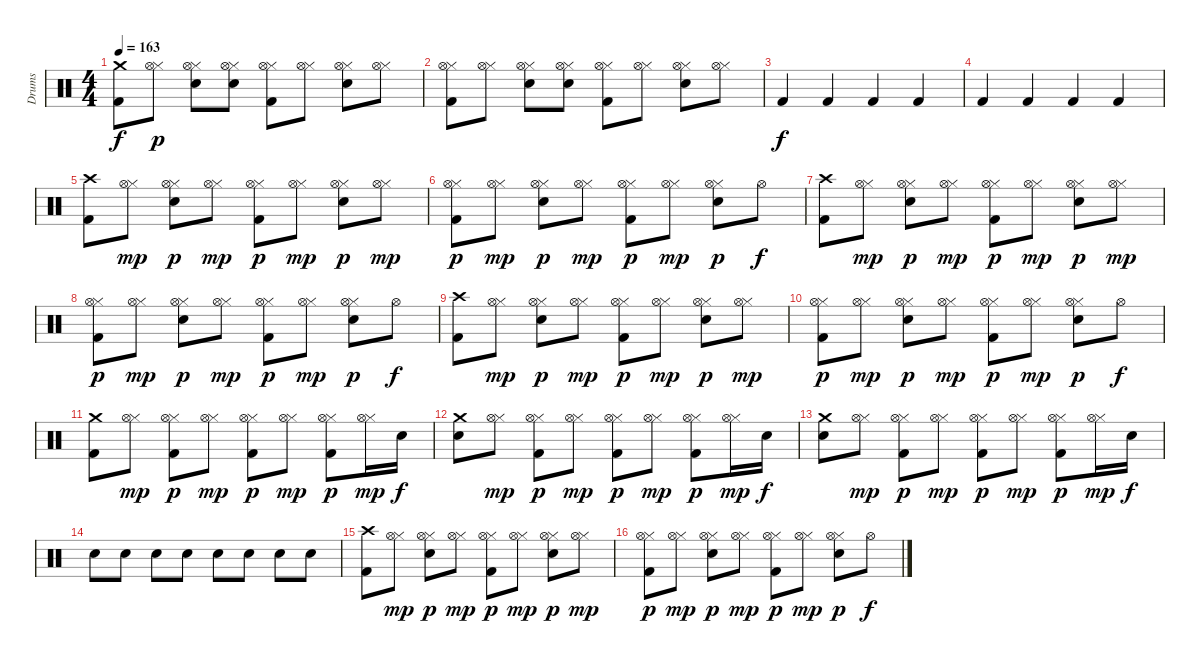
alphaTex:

\track ("Drums" "Drums") {instrument percussion}
\staff {score}
\articulation defaults
\ts (4 4)
\tempo 163
\clef neutral
\ks c
("Kick (hit) 2" "Crash medium (hit)").8{dy f} ("Hi-Hat (closed)" "Hi-Hat (open)").8{dy p} ("Electric Snare (hit)" "Hi-Hat (closed)" "Hi-Hat (open)").8 ("Electric Snare (hit)" "Hi-Hat (closed)" "Hi-Hat (open)").8 ("Kick (hit) 2" "Hi-Hat (closed)" "Hi-Hat (open)").8 ("Hi-Hat (closed)" "Hi-Hat (open)").8 ("Electric Snare (hit)" "Hi-Hat (closed)" "Hi-Hat (open)").8 ("Hi-Hat (closed)" "Hi-Hat (open)").8 |
("Kick (hit) 2" "Hi-Hat (closed)" "Hi-Hat (open)").8 ("Hi-Hat (closed)" "Hi-Hat (open)").8 ("Electric Snare (hit)" "Hi-Hat (closed)" "Hi-Hat (open)").8 ("Electric Snare (hit)" "Hi-Hat (closed)" "Hi-Hat (open)").8 ("Kick (hit) 2" "Hi-Hat (closed)" "Hi-Hat (open)").8 ("Hi-Hat (closed)" "Hi-Hat (open)").8 ("Electric Snare (hit)" "Hi-Hat (closed)" "Hi-Hat (open)").8 ("Hi-Hat (closed)" "Hi-Hat (open)").8 |
"Kick (hit) 2".4{dy f} "Kick (hit) 2".4 "Kick (hit) 2".4 "Kick (hit) 2".4 |
"Kick (hit) 2".4 "Kick (hit) 2".4 "Kick (hit) 2".4 "Kick (hit) 2".4 |
("Kick (hit) 2" "Crash high (hit)").8 ("Hi-Hat (closed)" "Hi-Hat (open)").8{dy mp} ("Electric Snare (hit)" "Hi-Hat (closed)" "Hi-Hat (open)").8{dy p} ("Hi-Hat (closed)" "Hi-Hat (open)").8{dy mp} ("Kick (hit) 2" "Hi-Hat (closed)" "Hi-Hat (open)").8{dy p} ("Hi-Hat (closed)" "Hi-Hat (open)").8{dy mp} ("Electric Snare (hit)" "Hi-Hat (closed)" "Hi-Hat (open)").8{dy p} ("Hi-Hat (closed)" "Hi-Hat (open)").8{dy mp} |
("Kick (hit) 2" "Hi-Hat (closed)" "Hi-Hat (open)").8{dy p} ("Hi-Hat (closed)" "Hi-Hat (open)").8{dy mp} ("Electric Snare (hit)" "Hi-Hat (closed)" "Hi-Hat (open)").8{dy p} ("Hi-Hat (closed)" "Hi-Hat (open)").8{dy mp} ("Kick (hit) 2" "Hi-Hat (closed)" "Hi-Hat (open)").8{dy p} ("Hi-Hat (closed)" "Hi-Hat (open)").8{dy mp} ("Electric Snare (hit)" "Hi-Hat (closed)" "Hi-Hat (open)").8{dy p} "Hi-Hat (open)".8{dy f} |
("Kick (hit) 2" "Crash high (hit)").8 ("Hi-Hat (closed)" "Hi-Hat (open)").8{dy mp} ("Electric Snare (hit)" "Hi-Hat (closed)" "Hi-Hat (open)").8{dy p} ("Hi-Hat (closed)" "Hi-Hat (open)").8{dy mp} ("Kick (hit) 2" "Hi-Hat (closed)" "Hi-Hat (open)").8{dy p} ("Hi-Hat (closed)" "Hi-Hat (open)").8{dy mp} ("Electric Snare (hit)" "Hi-Hat (closed)" "Hi-Hat (open)").8{dy p} ("Hi-Hat (closed)" "Hi-Hat (open)").8{dy mp} |
("Kick (hit) 2" "Hi-Hat (closed)" "Hi-Hat (open)").8{dy p} ("Hi-Hat (closed)" "Hi-Hat (open)").8{dy mp} ("Electric Snare (hit)" "Hi-Hat (closed)" "Hi-Hat (open)").8{dy p} ("Hi-Hat (closed)" "Hi-Hat (open)").8{dy mp} ("Kick (hit) 2" "Hi-Hat (closed)" "Hi-Hat (open)").8{dy p} ("Hi-Hat (closed)" "Hi-Hat (open)").8{dy mp} ("Electric Snare (hit)" "Hi-Hat (closed)" "Hi-Hat (open)").8{dy p} "Hi-Hat (open)".8{dy f} |
("Kick (hit) 2" "Crash high (hit)").8 ("Hi-Hat (closed)" "Hi-Hat (open)").8{dy mp} ("Electric Snare (hit)" "Hi-Hat (closed)" "Hi-Hat (open)").8{dy p} ("Hi-Hat (closed)" "Hi-Hat (open)").8{dy mp} ("Kick (hit) 2" "Hi-Hat (closed)" "Hi-Hat (open)").8{dy p} ("Hi-Hat (closed)" "Hi-Hat (open)").8{dy mp} ("Electric Snare (hit)" "Hi-Hat (closed)" "Hi-Hat (open)").8{dy p} ("Hi-Hat (closed)" "Hi-Hat (open)").8{dy mp} |
("Kick (hit) 2" "Hi-Hat (closed)" "Hi-Hat (open)").8{dy p} ("Hi-Hat (closed)" "Hi-Hat (open)").8{dy mp} ("Electric Snare (hit)" "Hi-Hat (closed)" "Hi-Hat (open)").8{dy p} ("Hi-Hat (closed)" "Hi-Hat (open)").8{dy mp} ("Kick (hit) 2" "Hi-Hat (closed)" "Hi-Hat (open)").8{dy p} ("Hi-Hat (closed)" "Hi-Hat (open)").8{dy mp} ("Electric Snare (hit)" "Hi-Hat (closed)" "Hi-Hat (open)").8{dy p} "Hi-Hat (open)".8{dy f} |
("Kick (hit) 2" "Crash medium (hit)").8 ("Hi-Hat (closed)" "Hi-Hat (open)").8{dy mp} ("Kick (hit) 2" "Hi-Hat (closed)" "Hi-Hat (open)").8{dy p} ("Hi-Hat (closed)" "Hi-Hat (open)").8{dy mp} ("Kick (hit) 2" "Hi-Hat (closed)" "Hi-Hat (open)").8{dy p} ("Hi-Hat (closed)" "Hi-Hat (open)").8{dy mp} ("Kick (hit) 2" "Hi-Hat (closed)" "Hi-Hat (open)").8{dy p} ("Hi-Hat (closed)" "Hi-Hat (open)").16{dy mp} "Electric Snare (hit)".16{dy f} |
("Electric Snare (hit)" "Crash medium (hit)").8 ("Hi-Hat (closed)" "Hi-Hat (open)").8{dy mp} ("Kick (hit) 2" "Hi-Hat (closed)" "Hi-Hat (open)").8{dy p} ("Hi-Hat (closed)" "Hi-Hat (open)").8{dy mp} ("Kick (hit) 2" "Hi-Hat (closed)" "Hi-Hat (open)").8{dy p} ("Hi-Hat (closed)" "Hi-Hat (open)").8{dy mp} ("Kick (hit) 2" "Hi-Hat (closed)" "Hi-Hat (open)").8{dy p} ("Hi-Hat (closed)" "Hi-Hat (open)").16{dy mp} "Electric Snare (hit)".16{dy f} |
("Electric Snare (hit)" "Crash medium (hit)").8 ("Hi-Hat (closed)" "Hi-Hat (open)").8{dy mp} ("Kick (hit) 2" "Hi-Hat (closed)" "Hi-Hat (open)").8{dy p} ("Hi-Hat (closed)" "Hi-Hat (open)").8{dy mp} ("Kick (hit) 2" "Hi-Hat (closed)" "Hi-Hat (open)").8{dy p} ("Hi-Hat (closed)" "Hi-Hat (open)").8{dy mp} ("Kick (hit) 2" "Hi-Hat (closed)" "Hi-Hat (open)").8{dy p} ("Hi-Hat (closed)" "Hi-Hat (open)").16{dy mp} "Electric Snare (hit)".16{dy f} |
"Electric Snare (hit)".8 "Electric Snare (hit)".8 "Electric Snare (hit)".8 "Electric Snare (hit)".8 "Electric Snare (hit)".8 "Electric Snare (hit)".8 "Electric Snare (hit)".8 "Electric Snare (hit)".8 |
("Kick (hit) 2" "Crash high (hit)").8 ("Hi-Hat (closed)" "Hi-Hat (open)").8{dy mp} ("Electric Snare (hit)" "Hi-Hat (closed)" "Hi-Hat (open)").8{dy p} ("Hi-Hat (closed)" "Hi-Hat (open)").8{dy mp} ("Kick (hit) 2" "Hi-Hat (closed)" "Hi-Hat (open)").8{dy p} ("Hi-Hat (closed)" "Hi-Hat (open)").8{dy mp} ("Electric Snare (hit)" "Hi-Hat (closed)" "Hi-Hat (open)").8{dy p} ("Hi-Hat (closed)" "Hi-Hat (open)").8{dy mp} |
("Kick (hit) 2" "Hi-Hat (closed)" "Hi-Hat (open)").8{dy p} ("Hi-Hat (closed)" "Hi-Hat (open)").8{dy mp} ("Electric Snare (hit)" "Hi-Hat (closed)" "Hi-Hat (open)").8{dy p} ("Hi-Hat (closed)" "Hi-Hat (open)").8{dy mp} ("Kick (hit) 2" "Hi-Hat (closed)" "Hi-Hat (open)").8{dy p} ("Hi-Hat (closed)" "Hi-Hat (open)").8{dy mp} ("Electric Snare (hit)" "Hi-Hat (closed)" "Hi-Hat (open)").8{dy p} "Hi-Hat (open)".8{dy f}
